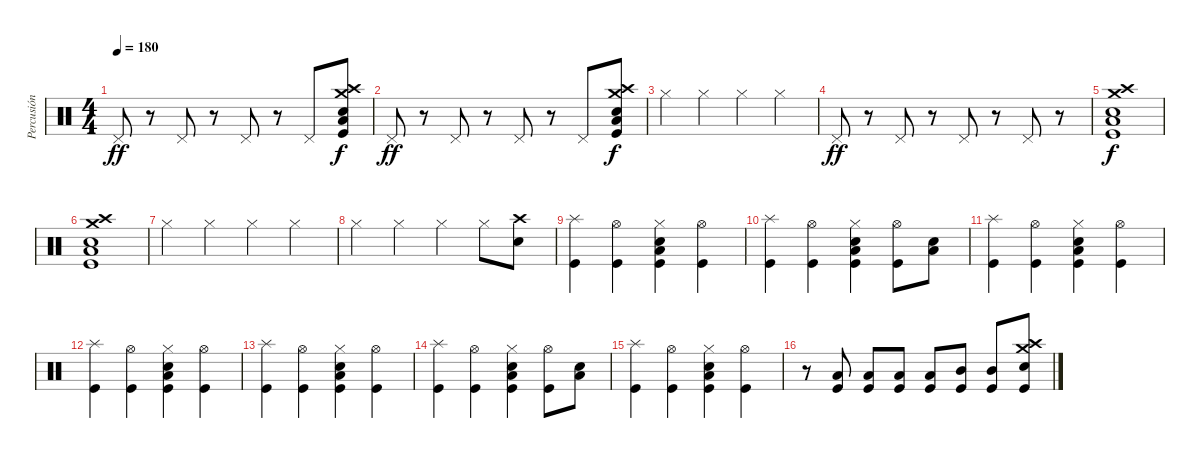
\track ("Percusión" "Percusión") {instrument percussion}
\staff {score}
\articulation defaults
\ts (4 4)
\tempo 180
\clef neutral
\ks c "Pedal Hi-Hat (hit)".8{dy ff}
r.8 "Pedal Hi-Hat (hit)".8 r.8 "Pedal Hi-Hat (hit)".8 r.8 "Pedal Hi-Hat (hit)".8 ("Kick (hit)" "Crash high (hit)" "Crash medium (hit)" "Low Tom (hit)" "Electric Snare (hit)").8{dy f} |
"Pedal Hi-Hat (hit)".8{dy ff} r.8 "Pedal Hi-Hat (hit)".8 r.8 "Pedal Hi-Hat (hit)".8 r.8 "Pedal Hi-Hat (hit)".8 ("Kick (hit)" "Crash high (hit)" "Crash medium (hit)" "Low Tom (hit)" "Electric Snare (hit)").8{dy f} |
"Hi-Hat (closed)".4 "Hi-Hat (closed)".4 "Hi-Hat (closed)".4 "Hi-Hat (closed)".4 |
"Pedal Hi-Hat (hit)".8{dy ff} r.8 "Pedal Hi-Hat (hit)".8 r.8 "Pedal Hi-Hat (hit)".8 r.8 "Pedal Hi-Hat (hit)".8 r.8 |
("Kick (hit)" "Crash high (hit)" "Crash medium (hit)" "Low Tom (hit)" "Electric Snare (hit)").1{dy f} |
("Kick (hit)" "Crash high (hit)" "Crash medium (hit)" "Low Tom (hit)" "Electric Snare (hit)").1 |
"Hi-Hat (closed)".4 "Hi-Hat (closed)".4 "Hi-Hat (closed)".4 "Hi-Hat (closed)".4 |
"Hi-Hat (closed)".4 "Hi-Hat (closed)".4 "Hi-Hat (closed)".4 "Hi-Hat (closed)".8 ("Crash high (hit)" "Electric Snare (hit)").8 |
("Splash (hit)" "Kick (hit)").4 ("Hi-Hat (open)" "Kick (hit)").4 ("Hi-Hat (closed)" "Electric Snare (hit)" "Low Tom (hit)" "Kick (hit)").4 ("Hi-Hat (open)" "Kick (hit)").4 |
("Splash (hit)" "Kick (hit)").4 ("Hi-Hat (open)" "Kick (hit)").4 ("Hi-Hat (closed)" "Electric Snare (hit)" "Low Tom (hit)" "Kick (hit)").4 ("Hi-Hat (open)" "Kick (hit)").8 ("Electric Snare (hit)" "Low Tom (hit)").8 |
("Splash (hit)" "Kick (hit)").4 ("Hi-Hat (open)" "Kick (hit)").4 ("Hi-Hat (closed)" "Electric Snare (hit)" "Low Tom (hit)" "Kick (hit)").4 ("Hi-Hat (open)" "Kick (hit)").4 |
("Splash (hit)" "Kick (hit)").4 ("Hi-Hat (open)" "Kick (hit)").4 ("Hi-Hat (closed)" "Electric Snare (hit)" "Low Tom (hit)" "Kick (hit)").4 ("Hi-Hat (open)" "Kick (hit)").4 |
("Splash (hit)" "Kick (hit)").4 ("Hi-Hat (open)" "Kick (hit)").4 ("Hi-Hat (closed)" "Electric Snare (hit)" "Low Tom (hit)" "Kick (hit)").4 ("Hi-Hat (open)" "Kick (hit)").4 |
("Splash (hit)" "Kick (hit)").4 ("Hi-Hat (open)" "Kick (hit)").4 ("Hi-Hat (closed)" "Electric Snare (hit)" "Low Tom (hit)" "Kick (hit)").4 ("Hi-Hat (open)" "Kick (hit)").8 ("Electric Snare (hit)" "Low Tom (hit)").8 |
("Splash (hit)" "Kick (hit)").4 ("Hi-Hat (open)" "Kick (hit)").4 ("Hi-Hat (closed)" "Electric Snare (hit)" "Low Tom (hit)" "Kick (hit)").4 ("Hi-Hat (open)" "Kick (hit)").4 |
r.8 ("Low Floor Tom (hit)" "Kick (hit)").8 ("Low Floor Tom (hit)" "Kick (hit)").8 ("Low Floor Tom (hit)" "Kick (hit)").8 ("Low Tom (hit)" "Kick (hit)").8 ("Mid Tom (hit)" "Kick (hit)").8 ("Mid Tom (hit)" "Kick (hit)").8 ("Crash medium (hit)" "Crash high (hit)" "Electric Snare (hit)" "Kick (hit)").8
